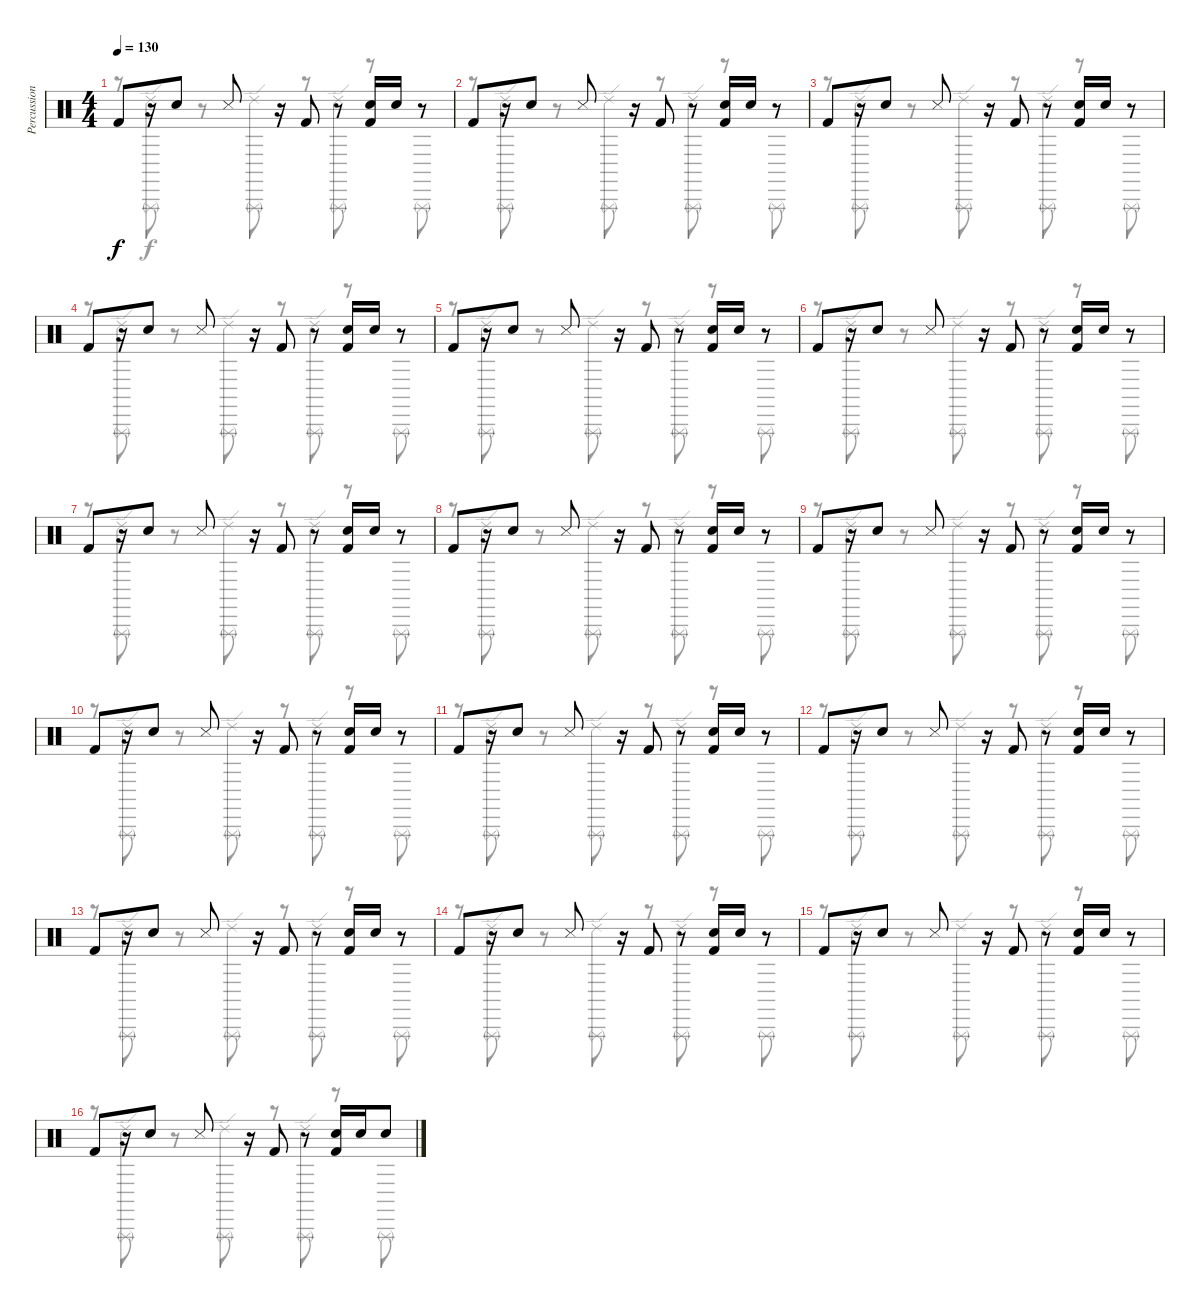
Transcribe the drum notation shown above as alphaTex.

\track ("Percussion" "Percussion") {instrument percussion}
\staff {score}
\articulation defaults
\voice
\ts (4 4)
\tempo 130
\clef neutral
\ks c "Kick (hit) 2".8{dy f}
r.16 "Electric Snare (hit)".8 "Snare (side stick) 3".8 r.16 "Kick (hit) 2".8 r.8 ("Electric Snare (hit)" "Kick (hit) 2").16 "Electric Snare (hit)".16 r.8 |
"Kick (hit) 2".8 r.16 "Electric Snare (hit)".8 "Snare (side stick) 3".8 r.16 "Kick (hit) 2".8 r.8 ("Electric Snare (hit)" "Kick (hit) 2").16 "Electric Snare (hit)".16 r.8 |
"Kick (hit) 2".8 r.16 "Electric Snare (hit)".8 "Snare (side stick) 3".8 r.16 "Kick (hit) 2".8 r.8 ("Electric Snare (hit)" "Kick (hit) 2").16 "Electric Snare (hit)".16 r.8 |
"Kick (hit) 2".8 r.16 "Electric Snare (hit)".8 "Snare (side stick) 3".8 r.16 "Kick (hit) 2".8 r.8 ("Electric Snare (hit)" "Kick (hit) 2").16 "Electric Snare (hit)".16 r.8 |
"Kick (hit) 2".8 r.16 "Electric Snare (hit)".8 "Snare (side stick) 3".8 r.16 "Kick (hit) 2".8 r.8 ("Electric Snare (hit)" "Kick (hit) 2").16 "Electric Snare (hit)".16 r.8 |
"Kick (hit) 2".8 r.16 "Electric Snare (hit)".8 "Snare (side stick) 3".8 r.16 "Kick (hit) 2".8 r.8 ("Electric Snare (hit)" "Kick (hit) 2").16 "Electric Snare (hit)".16 r.8 |
"Kick (hit) 2".8 r.16 "Electric Snare (hit)".8 "Snare (side stick) 3".8 r.16 "Kick (hit) 2".8 r.8 ("Electric Snare (hit)" "Kick (hit) 2").16 "Electric Snare (hit)".16 r.8 |
"Kick (hit) 2".8 r.16 "Electric Snare (hit)".8 "Snare (side stick) 3".8 r.16 "Kick (hit) 2".8 r.8 ("Electric Snare (hit)" "Kick (hit) 2").16 "Electric Snare (hit)".16 r.8 |
"Kick (hit) 2".8 r.16 "Electric Snare (hit)".8 "Snare (side stick) 3".8 r.16 "Kick (hit) 2".8 r.8 ("Electric Snare (hit)" "Kick (hit) 2").16 "Electric Snare (hit)".16 r.8 |
"Kick (hit) 2".8 r.16 "Electric Snare (hit)".8 "Snare (side stick) 3".8 r.16 "Kick (hit) 2".8 r.8 ("Electric Snare (hit)" "Kick (hit) 2").16 "Electric Snare (hit)".16 r.8 |
"Kick (hit) 2".8 r.16 "Electric Snare (hit)".8 "Snare (side stick) 3".8 r.16 "Kick (hit) 2".8 r.8 ("Electric Snare (hit)" "Kick (hit) 2").16 "Electric Snare (hit)".16 r.8 |
"Kick (hit) 2".8 r.16 "Electric Snare (hit)".8 "Snare (side stick) 3".8 r.16 "Kick (hit) 2".8 r.8 ("Electric Snare (hit)" "Kick (hit) 2").16 "Electric Snare (hit)".16 r.8 |
"Kick (hit) 2".8 r.16 "Electric Snare (hit)".8 "Snare (side stick) 3".8 r.16 "Kick (hit) 2".8 r.8 ("Electric Snare (hit)" "Kick (hit) 2").16 "Electric Snare (hit)".16 r.8 |
"Kick (hit) 2".8 r.16 "Electric Snare (hit)".8 "Snare (side stick) 3".8 r.16 "Kick (hit) 2".8 r.8 ("Electric Snare (hit)" "Kick (hit) 2").16 "Electric Snare (hit)".16 r.8 |
"Kick (hit) 2".8 r.16 "Electric Snare (hit)".8 "Snare (side stick) 3".8 r.16 "Kick (hit) 2".8 r.8 ("Electric Snare (hit)" "Kick (hit) 2").16 "Electric Snare (hit)".16 r.8 |
"Kick (hit) 2".8 r.16 "Electric Snare (hit)".8 "Snare (side stick) 3".8 r.16 "Kick (hit) 2".8 r.8 ("Electric Snare (hit)" "Kick (hit) 2").16 "Electric Snare (hit)".16 "Electric Snare (hit)".8
\voice
\clef neutral
\ottava regular
\simile none
\ks c
r.8{dy f} ("Triangle (rnute)" "Ride (edge) 2").8 r.8 ("Triangle (rnute)" "Ride (edge) 2").8 r.8 ("Triangle (rnute)" "Ride (edge) 2").8 r.8 "Triangle (rnute)".8 |
r.8 ("Triangle (rnute)" "Ride (edge) 2").8 r.8 ("Triangle (rnute)" "Ride (edge) 2").8 r.8 ("Triangle (rnute)" "Ride (edge) 2").8 r.8 "Triangle (rnute)".8 |
r.8 ("Triangle (rnute)" "Ride (edge) 2").8 r.8 ("Triangle (rnute)" "Ride (edge) 2").8 r.8 ("Triangle (rnute)" "Ride (edge) 2").8 r.8 "Triangle (rnute)".8 |
r.8 ("Triangle (rnute)" "Ride (edge) 2").8 r.8 ("Triangle (rnute)" "Ride (edge) 2").8 r.8 ("Triangle (rnute)" "Ride (edge) 2").8 r.8 "Triangle (rnute)".8 |
r.8 ("Triangle (rnute)" "Ride (edge) 2").8 r.8 ("Triangle (rnute)" "Ride (edge) 2").8 r.8 ("Triangle (rnute)" "Ride (edge) 2").8 r.8 "Triangle (rnute)".8 |
r.8 ("Triangle (rnute)" "Ride (edge) 2").8 r.8 ("Triangle (rnute)" "Ride (edge) 2").8 r.8 ("Triangle (rnute)" "Ride (edge) 2").8 r.8 "Triangle (rnute)".8 |
r.8 ("Triangle (rnute)" "Ride (edge) 2").8 r.8 ("Triangle (rnute)" "Ride (edge) 2").8 r.8 ("Triangle (rnute)" "Ride (edge) 2").8 r.8 "Triangle (rnute)".8 |
r.8 ("Triangle (rnute)" "Ride (edge) 2").8 r.8 ("Triangle (rnute)" "Ride (edge) 2").8 r.8 ("Triangle (rnute)" "Ride (edge) 2").8 r.8 "Triangle (rnute)".8 |
r.8 ("Triangle (rnute)" "Ride (edge) 2").8 r.8 ("Triangle (rnute)" "Ride (edge) 2").8 r.8 ("Triangle (rnute)" "Ride (edge) 2").8 r.8 "Triangle (rnute)".8 |
r.8 ("Triangle (rnute)" "Ride (edge) 2").8 r.8 ("Triangle (rnute)" "Ride (edge) 2").8 r.8 ("Triangle (rnute)" "Ride (edge) 2").8 r.8 "Triangle (rnute)".8 |
r.8 ("Triangle (rnute)" "Ride (edge) 2").8 r.8 ("Triangle (rnute)" "Ride (edge) 2").8 r.8 ("Triangle (rnute)" "Ride (edge) 2").8 r.8 "Triangle (rnute)".8 |
r.8 ("Triangle (rnute)" "Ride (edge) 2").8 r.8 ("Triangle (rnute)" "Ride (edge) 2").8 r.8 ("Triangle (rnute)" "Ride (edge) 2").8 r.8 "Triangle (rnute)".8 |
r.8 ("Triangle (rnute)" "Ride (edge) 2").8 r.8 ("Triangle (rnute)" "Ride (edge) 2").8 r.8 ("Triangle (rnute)" "Ride (edge) 2").8 r.8 "Triangle (rnute)".8 |
r.8 ("Triangle (rnute)" "Ride (edge) 2").8 r.8 ("Triangle (rnute)" "Ride (edge) 2").8 r.8 ("Triangle (rnute)" "Ride (edge) 2").8 r.8 "Triangle (rnute)".8 |
r.8 ("Triangle (rnute)" "Ride (edge) 2").8 r.8 ("Triangle (rnute)" "Ride (edge) 2").8 r.8 ("Triangle (rnute)" "Ride (edge) 2").8 r.8 "Triangle (rnute)".8 |
r.8 ("Triangle (rnute)" "Ride (edge) 2").8 r.8 ("Triangle (rnute)" "Ride (edge) 2").8 r.8 ("Triangle (rnute)" "Ride (edge) 2").8 r.8 "Triangle (rnute)".8
